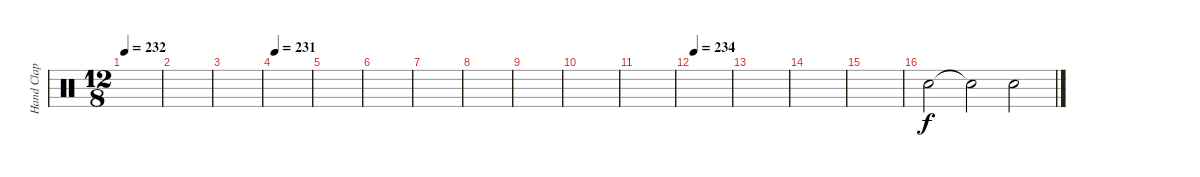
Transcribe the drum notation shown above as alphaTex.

\track ("Hand Clap" "Hand Clap") {instrument percussion}
\staff {score}
\articulation defaults
\ts (12 8)
\tempo 232
\clef neutral
\ks c
|
|
|
\tempo 231
|
|
|
|
|
|
|
|
\tempo 234
|
|
|
|
"Snare (hit) 2".2 "Snare (hit) 2"{t}.2 "Snare (hit) 2".2
